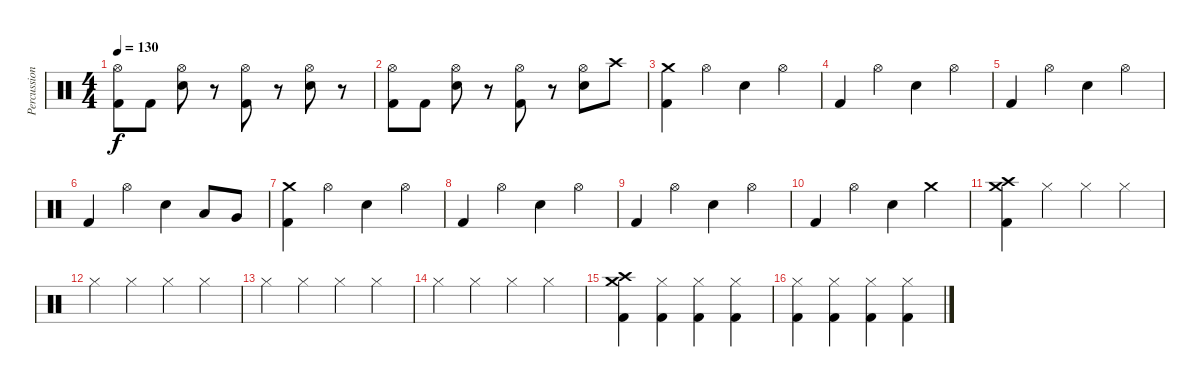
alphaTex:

\track ("Percussions" "Percussion") {instrument percussion}
\staff {score}
\articulation defaults
\ts (4 4)
\tempo 130
\clef neutral
\ks c
("Hi-Hat (open)" "Kick (hit) 2").8{dy f} "Kick (hit) 2".8 ("Hi-Hat (open)" "Electric Snare (hit)").8 r.8 ("Hi-Hat (open)" "Kick (hit) 2").8 r.8 ("Hi-Hat (open)" "Electric Snare (hit)").8 r.8 |
("Hi-Hat (open)" "Kick (hit) 2").8 "Kick (hit) 2".8 ("Hi-Hat (open)" "Electric Snare (hit)").8 r.8 ("Hi-Hat (open)" "Kick (hit) 2").8 r.8 ("Hi-Hat (open)" "Electric Snare (hit)").8 "Crash high (hit)".8 |
("Crash medium (hit)" "Kick (hit) 2").4 "Hi-Hat (open)".4 "Electric Snare (hit)".4 "Hi-Hat (open)".4 |
"Kick (hit) 2".4 "Hi-Hat (open)".4 "Electric Snare (hit)".4 "Hi-Hat (open)".4 |
"Kick (hit) 2".4 "Hi-Hat (open)".4 "Electric Snare (hit)".4 "Hi-Hat (open)".4 |
"Kick (hit) 2".4 "Hi-Hat (open)".4 "Electric Snare (hit)".4 "Low Tom (hit)".8 "Very Low Tom (hit)".8 |
("Crash medium (hit)" "Kick (hit) 2").4 "Hi-Hat (open)".4 "Electric Snare (hit)".4 "Hi-Hat (open)".4 |
"Kick (hit) 2".4 "Hi-Hat (open)".4 "Electric Snare (hit)".4 "Hi-Hat (open)".4 |
"Kick (hit) 2".4 "Hi-Hat (open)".4 "Electric Snare (hit)".4 "Hi-Hat (open)".4 |
"Kick (hit) 2".4 "Hi-Hat (open)".4 "Electric Snare (hit)".4 "Crash medium (hit)".4 |
("Crash high (hit)" "Crash medium (hit)" "Kick (hit) 2").4 "Hi-Hat (closed)".4 "Hi-Hat (closed)".4 "Hi-Hat (closed)".4 |
"Hi-Hat (closed)".4 "Hi-Hat (closed)".4 "Hi-Hat (closed)".4 "Hi-Hat (closed)".4 |
"Hi-Hat (closed)".4 "Hi-Hat (closed)".4 "Hi-Hat (closed)".4 "Hi-Hat (closed)".4 |
"Hi-Hat (closed)".4 "Hi-Hat (closed)".4 "Hi-Hat (closed)".4 "Hi-Hat (closed)".4 |
("Crash high (hit)" "Crash medium (hit)" "Kick (hit) 2").4 ("Hi-Hat (closed)" "Kick (hit) 2").4 ("Hi-Hat (closed)" "Kick (hit) 2").4 ("Hi-Hat (closed)" "Kick (hit) 2").4 |
("Hi-Hat (closed)" "Kick (hit) 2").4 ("Hi-Hat (closed)" "Kick (hit) 2").4 ("Hi-Hat (closed)" "Kick (hit) 2").4 ("Hi-Hat (closed)" "Kick (hit) 2").4
